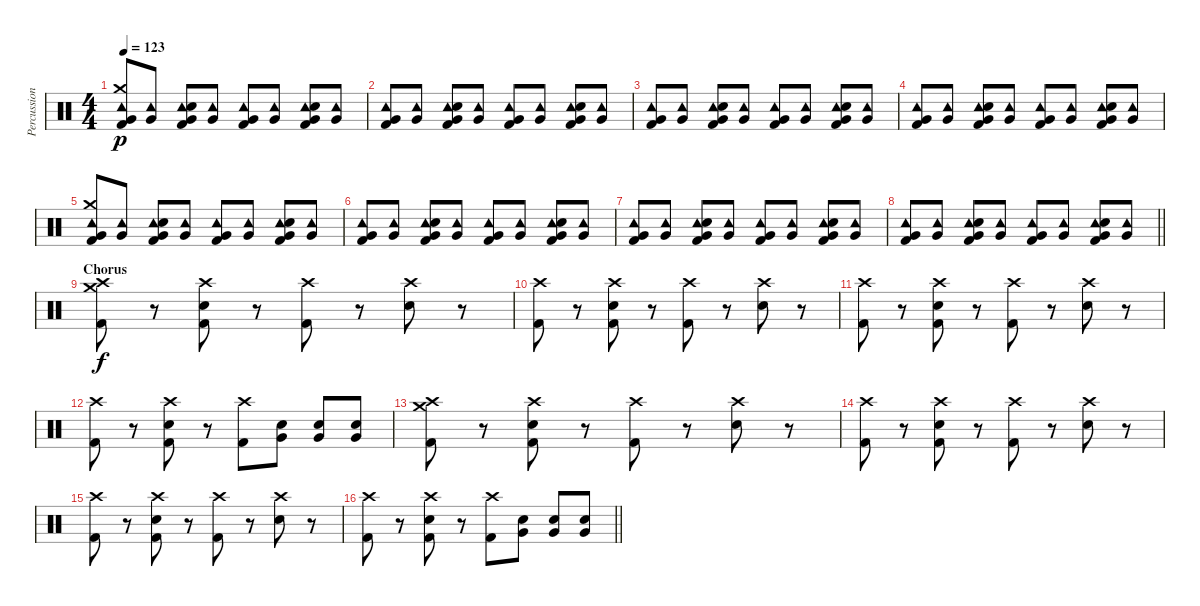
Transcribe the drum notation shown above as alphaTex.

\track ("Percussion" "Percussion") {instrument percussion}
\staff {score}
\articulation defaults
\ts (4 4)
\tempo 123
\clef neutral
\ks c
("Tambourine (hit)" "Crash medium (hit)" "Very Low Tom (hit)" "Kick (hit) 2").8{dy p} ("Tambourine (hit)" "Very Low Tom (hit)").8 ("Tambourine (hit)" "Very Low Tom (hit)" "Snare (hit) 2" "Kick (hit) 2").8 ("Tambourine (hit)" "Very Low Tom (hit)").8 ("Tambourine (hit)" "Very Low Tom (hit)" "Kick (hit) 2").8 ("Tambourine (hit)" "Very Low Tom (hit)").8 ("Tambourine (hit)" "Very Low Tom (hit)" "Snare (hit) 2" "Kick (hit) 2").8 ("Tambourine (hit)" "Very Low Tom (hit)").8 |
("Tambourine (hit)" "Very Low Tom (hit)" "Kick (hit) 2").8 ("Tambourine (hit)" "Very Low Tom (hit)").8 ("Tambourine (hit)" "Very Low Tom (hit)" "Snare (hit) 2" "Kick (hit) 2").8 ("Tambourine (hit)" "Very Low Tom (hit)").8 ("Tambourine (hit)" "Very Low Tom (hit)" "Kick (hit) 2").8 ("Tambourine (hit)" "Very Low Tom (hit)").8 ("Tambourine (hit)" "Very Low Tom (hit)" "Snare (hit) 2" "Kick (hit) 2").8 ("Tambourine (hit)" "Very Low Tom (hit)").8 |
("Tambourine (hit)" "Very Low Tom (hit)" "Kick (hit) 2").8 ("Tambourine (hit)" "Very Low Tom (hit)").8 ("Tambourine (hit)" "Very Low Tom (hit)" "Snare (hit) 2" "Kick (hit) 2").8 ("Tambourine (hit)" "Very Low Tom (hit)").8 ("Tambourine (hit)" "Very Low Tom (hit)" "Kick (hit) 2").8 ("Tambourine (hit)" "Very Low Tom (hit)").8 ("Tambourine (hit)" "Very Low Tom (hit)" "Snare (hit) 2" "Kick (hit) 2").8 ("Tambourine (hit)" "Very Low Tom (hit)").8 |
("Tambourine (hit)" "Very Low Tom (hit)" "Kick (hit) 2").8 ("Tambourine (hit)" "Very Low Tom (hit)").8 ("Tambourine (hit)" "Very Low Tom (hit)" "Snare (hit) 2" "Kick (hit) 2").8 ("Tambourine (hit)" "Very Low Tom (hit)").8 ("Tambourine (hit)" "Very Low Tom (hit)" "Kick (hit) 2").8 ("Tambourine (hit)" "Very Low Tom (hit)").8 ("Tambourine (hit)" "Very Low Tom (hit)" "Snare (hit) 2" "Kick (hit) 2").8 ("Tambourine (hit)" "Very Low Tom (hit)").8 |
("Tambourine (hit)" "Crash medium (hit)" "Very Low Tom (hit)" "Kick (hit) 2").8 ("Tambourine (hit)" "Very Low Tom (hit)").8 ("Tambourine (hit)" "Very Low Tom (hit)" "Snare (hit) 2" "Kick (hit) 2").8 ("Tambourine (hit)" "Very Low Tom (hit)").8 ("Tambourine (hit)" "Very Low Tom (hit)" "Kick (hit) 2").8 ("Tambourine (hit)" "Very Low Tom (hit)").8 ("Tambourine (hit)" "Very Low Tom (hit)" "Snare (hit) 2" "Kick (hit) 2").8 ("Tambourine (hit)" "Very Low Tom (hit)").8 |
("Tambourine (hit)" "Very Low Tom (hit)" "Kick (hit) 2").8 ("Tambourine (hit)" "Very Low Tom (hit)").8 ("Tambourine (hit)" "Very Low Tom (hit)" "Snare (hit) 2" "Kick (hit) 2").8 ("Tambourine (hit)" "Very Low Tom (hit)").8 ("Tambourine (hit)" "Very Low Tom (hit)" "Kick (hit) 2").8 ("Tambourine (hit)" "Very Low Tom (hit)").8 ("Tambourine (hit)" "Very Low Tom (hit)" "Snare (hit) 2" "Kick (hit) 2").8 ("Tambourine (hit)" "Very Low Tom (hit)").8 |
("Tambourine (hit)" "Very Low Tom (hit)" "Kick (hit) 2").8 ("Tambourine (hit)" "Very Low Tom (hit)").8 ("Tambourine (hit)" "Very Low Tom (hit)" "Snare (hit) 2" "Kick (hit) 2").8 ("Tambourine (hit)" "Very Low Tom (hit)").8 ("Tambourine (hit)" "Very Low Tom (hit)" "Kick (hit) 2").8 ("Tambourine (hit)" "Very Low Tom (hit)").8 ("Tambourine (hit)" "Very Low Tom (hit)" "Snare (hit) 2" "Kick (hit) 2").8 ("Tambourine (hit)" "Very Low Tom (hit)").8 |
\barLineRight lightlight
("Tambourine (hit)" "Very Low Tom (hit)" "Kick (hit) 2").8 ("Tambourine (hit)" "Very Low Tom (hit)").8 ("Tambourine (hit)" "Very Low Tom (hit)" "Snare (hit) 2" "Kick (hit) 2").8 ("Tambourine (hit)" "Very Low Tom (hit)").8 ("Tambourine (hit)" "Very Low Tom (hit)" "Kick (hit) 2").8 ("Tambourine (hit)" "Very Low Tom (hit)").8 ("Tambourine (hit)" "Very Low Tom (hit)" "Snare (hit) 2" "Kick (hit) 2").8 ("Tambourine (hit)" "Very Low Tom (hit)").8 |
\section ("" "Chorus")
("Crash medium (hit)" "Crash high (hit)" "Kick (hit) 2").8{dy f} r.8 ("Crash high (hit)" "Snare (hit) 2" "Kick (hit) 2").8 r.8 ("Crash high (hit)" "Kick (hit) 2").8 r.8 ("Crash high (hit)" "Snare (hit) 2").8 r.8 |
("Crash high (hit)" "Kick (hit) 2").8 r.8 ("Crash high (hit)" "Snare (hit) 2" "Kick (hit) 2").8 r.8 ("Crash high (hit)" "Kick (hit) 2").8 r.8 ("Crash high (hit)" "Snare (hit) 2").8 r.8 |
("Crash high (hit)" "Kick (hit) 2").8 r.8 ("Crash high (hit)" "Snare (hit) 2" "Kick (hit) 2").8 r.8 ("Crash high (hit)" "Kick (hit) 2").8 r.8 ("Crash high (hit)" "Snare (hit) 2").8 r.8 |
("Crash high (hit)" "Kick (hit) 2").8 r.8 ("Crash high (hit)" "Snare (hit) 2" "Kick (hit) 2").8 r.8 ("Crash high (hit)" "Kick (hit) 2").8 ("Very Low Tom (hit)" "Snare (hit) 2").8 ("Very Low Tom (hit)" "Snare (hit) 2").8 ("Very Low Tom (hit)" "Snare (hit) 2").8 |
("Crash medium (hit)" "Crash high (hit)" "Kick (hit) 2").8 r.8 ("Crash high (hit)" "Snare (hit) 2" "Kick (hit) 2").8 r.8 ("Crash high (hit)" "Kick (hit) 2").8 r.8 ("Crash high (hit)" "Snare (hit) 2").8 r.8 |
("Crash high (hit)" "Kick (hit) 2").8 r.8 ("Crash high (hit)" "Snare (hit) 2" "Kick (hit) 2").8 r.8 ("Crash high (hit)" "Kick (hit) 2").8 r.8 ("Crash high (hit)" "Snare (hit) 2").8 r.8 |
("Crash high (hit)" "Kick (hit) 2").8 r.8 ("Crash high (hit)" "Snare (hit) 2" "Kick (hit) 2").8 r.8 ("Crash high (hit)" "Kick (hit) 2").8 r.8 ("Crash high (hit)" "Snare (hit) 2").8 r.8 |
\barLineRight lightlight
("Crash high (hit)" "Kick (hit) 2").8 r.8 ("Crash high (hit)" "Snare (hit) 2" "Kick (hit) 2").8 r.8 ("Crash high (hit)" "Kick (hit) 2").8 ("Very Low Tom (hit)" "Snare (hit) 2").8 ("Very Low Tom (hit)" "Snare (hit) 2").8 ("Very Low Tom (hit)" "Snare (hit) 2").8
